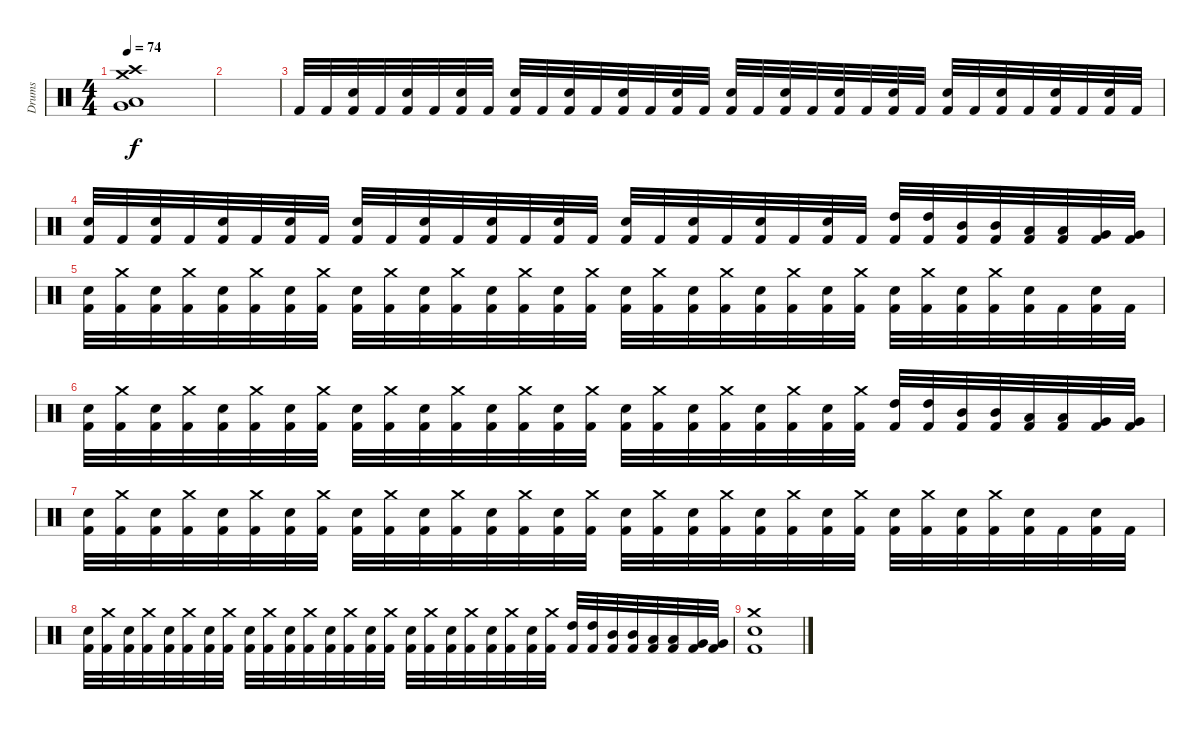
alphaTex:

\track ("Drums" "Drums") {instrument percussion}
\staff {score}
\articulation defaults
\ts (4 4)
\tempo 74
\clef neutral
\ks c
("Crash medium (hit)" "Crash high (hit)" "Low Floor Tom (hit)" "Very Low Tom (hit)").1{dy f} |
|
"Kick (hit) 2".32 "Kick (hit) 2".32 ("Kick (hit) 2" "Snare (hit) 2").32 "Kick (hit) 2".32 ("Kick (hit) 2" "Snare (hit) 2").32 "Kick (hit) 2".32 ("Kick (hit) 2" "Snare (hit) 2").32 "Kick (hit) 2".32 ("Kick (hit) 2" "Snare (hit) 2").32 "Kick (hit) 2".32 ("Kick (hit) 2" "Snare (hit) 2").32 "Kick (hit) 2".32 ("Kick (hit) 2" "Snare (hit) 2").32 "Kick (hit) 2".32 ("Kick (hit) 2" "Snare (hit) 2").32 "Kick (hit) 2".32 ("Kick (hit) 2" "Snare (hit) 2").32 "Kick (hit) 2".32 ("Kick (hit) 2" "Snare (hit) 2").32 "Kick (hit) 2".32 ("Kick (hit) 2" "Snare (hit) 2").32 "Kick (hit) 2".32 ("Kick (hit) 2" "Snare (hit) 2").32 "Kick (hit) 2".32 ("Kick (hit) 2" "Snare (hit) 2").32 "Kick (hit) 2".32 ("Kick (hit) 2" "Snare (hit) 2").32 "Kick (hit) 2".32 ("Kick (hit) 2" "Snare (hit) 2").32 "Kick (hit) 2".32 ("Kick (hit) 2" "Snare (hit) 2").32 "Kick (hit) 2".32 |
("Kick (hit) 2" "Snare (hit) 2").32 "Kick (hit) 2".32 ("Kick (hit) 2" "Snare (hit) 2").32 "Kick (hit) 2".32 ("Kick (hit) 2" "Snare (hit) 2").32 "Kick (hit) 2".32 ("Kick (hit) 2" "Snare (hit) 2").32 "Kick (hit) 2".32 ("Kick (hit) 2" "Snare (hit) 2").32 "Kick (hit) 2".32 ("Kick (hit) 2" "Snare (hit) 2").32 "Kick (hit) 2".32 ("Kick (hit) 2" "Snare (hit) 2").32 "Kick (hit) 2".32 ("Kick (hit) 2" "Snare (hit) 2").32 "Kick (hit) 2".32 ("Kick (hit) 2" "Snare (hit) 2").32 "Kick (hit) 2".32 ("Kick (hit) 2" "Snare (hit) 2").32 "Kick (hit) 2".32 ("Kick (hit) 2" "Snare (hit) 2").32 "Kick (hit) 2".32 ("Kick (hit) 2" "Snare (hit) 2").32 "Kick (hit) 2".32 ("Kick (hit) 2" "High Tom (hit)").32 ("Kick (hit) 2" "High Tom (hit)").32 ("Kick (hit) 2" "Mid Tom (hit)").32 ("Kick (hit) 2" "Mid Tom (hit)").32 ("Kick (hit) 2" "Low Tom (hit)").32 ("Kick (hit) 2" "Low Tom (hit)").32 ("Kick (hit) 2" "Very Low Tom (hit)").32 ("Kick (hit) 2" "Very Low Tom (hit)").32 |
("Kick (hit) 2" "Snare (hit) 2").32 ("Kick (hit) 2" "Crash medium (hit)").32 ("Kick (hit) 2" "Snare (hit) 2").32 ("Kick (hit) 2" "Crash medium (hit)").32 ("Kick (hit) 2" "Snare (hit) 2").32 ("Kick (hit) 2" "Crash medium (hit)").32 ("Kick (hit) 2" "Snare (hit) 2").32 ("Kick (hit) 2" "Crash medium (hit)").32 ("Kick (hit) 2" "Snare (hit) 2").32 ("Kick (hit) 2" "Crash medium (hit)").32 ("Kick (hit) 2" "Snare (hit) 2").32 ("Kick (hit) 2" "Crash medium (hit)").32 ("Kick (hit) 2" "Snare (hit) 2").32 ("Kick (hit) 2" "Crash medium (hit)").32 ("Kick (hit) 2" "Snare (hit) 2").32 ("Kick (hit) 2" "Crash medium (hit)").32 ("Kick (hit) 2" "Snare (hit) 2").32 ("Kick (hit) 2" "Crash medium (hit)").32 ("Kick (hit) 2" "Snare (hit) 2").32 ("Kick (hit) 2" "Crash medium (hit)").32 ("Kick (hit) 2" "Snare (hit) 2").32 ("Kick (hit) 2" "Crash medium (hit)").32 ("Kick (hit) 2" "Snare (hit) 2").32 ("Kick (hit) 2" "Crash medium (hit)").32 ("Kick (hit) 2" "Snare (hit) 2").32 ("Kick (hit) 2" "Crash medium (hit)").32 ("Kick (hit) 2" "Snare (hit) 2").32 ("Kick (hit) 2" "Crash medium (hit)").32 ("Kick (hit) 2" "Snare (hit) 2").32 "Kick (hit) 2".32 ("Kick (hit) 2" "Snare (hit) 2").32 "Kick (hit) 2".32 |
("Kick (hit) 2" "Snare (hit) 2").32 ("Kick (hit) 2" "Crash medium (hit)").32 ("Kick (hit) 2" "Snare (hit) 2").32 ("Kick (hit) 2" "Crash medium (hit)").32 ("Kick (hit) 2" "Snare (hit) 2").32 ("Kick (hit) 2" "Crash medium (hit)").32 ("Kick (hit) 2" "Snare (hit) 2").32 ("Kick (hit) 2" "Crash medium (hit)").32 ("Kick (hit) 2" "Snare (hit) 2").32 ("Kick (hit) 2" "Crash medium (hit)").32 ("Kick (hit) 2" "Snare (hit) 2").32 ("Kick (hit) 2" "Crash medium (hit)").32 ("Kick (hit) 2" "Snare (hit) 2").32 ("Kick (hit) 2" "Crash medium (hit)").32 ("Kick (hit) 2" "Snare (hit) 2").32 ("Kick (hit) 2" "Crash medium (hit)").32 ("Kick (hit) 2" "Snare (hit) 2").32 ("Kick (hit) 2" "Crash medium (hit)").32 ("Kick (hit) 2" "Snare (hit) 2").32 ("Kick (hit) 2" "Crash medium (hit)").32 ("Kick (hit) 2" "Snare (hit) 2").32 ("Kick (hit) 2" "Crash medium (hit)").32 ("Kick (hit) 2" "Snare (hit) 2").32 ("Kick (hit) 2" "Crash medium (hit)").32 ("Kick (hit) 2" "High Tom (hit)").32 ("Kick (hit) 2" "High Tom (hit)").32 ("Kick (hit) 2" "Mid Tom (hit)").32 ("Kick (hit) 2" "Mid Tom (hit)").32 ("Kick (hit) 2" "Low Tom (hit)").32 ("Kick (hit) 2" "Low Tom (hit)").32 ("Kick (hit) 2" "Very Low Tom (hit)").32 ("Kick (hit) 2" "Very Low Tom (hit)").32 |
("Kick (hit) 2" "Snare (hit) 2").32 ("Kick (hit) 2" "Crash medium (hit)").32 ("Kick (hit) 2" "Snare (hit) 2").32 ("Kick (hit) 2" "Crash medium (hit)").32 ("Kick (hit) 2" "Snare (hit) 2").32 ("Kick (hit) 2" "Crash medium (hit)").32 ("Kick (hit) 2" "Snare (hit) 2").32 ("Kick (hit) 2" "Crash medium (hit)").32 ("Kick (hit) 2" "Snare (hit) 2").32 ("Kick (hit) 2" "Crash medium (hit)").32 ("Kick (hit) 2" "Snare (hit) 2").32 ("Kick (hit) 2" "Crash medium (hit)").32 ("Kick (hit) 2" "Snare (hit) 2").32 ("Kick (hit) 2" "Crash medium (hit)").32 ("Kick (hit) 2" "Snare (hit) 2").32 ("Kick (hit) 2" "Crash medium (hit)").32 ("Kick (hit) 2" "Snare (hit) 2").32 ("Kick (hit) 2" "Crash medium (hit)").32 ("Kick (hit) 2" "Snare (hit) 2").32 ("Kick (hit) 2" "Crash medium (hit)").32 ("Kick (hit) 2" "Snare (hit) 2").32 ("Kick (hit) 2" "Crash medium (hit)").32 ("Kick (hit) 2" "Snare (hit) 2").32 ("Kick (hit) 2" "Crash medium (hit)").32 ("Kick (hit) 2" "Snare (hit) 2").32 ("Kick (hit) 2" "Crash medium (hit)").32 ("Kick (hit) 2" "Snare (hit) 2").32 ("Kick (hit) 2" "Crash medium (hit)").32 ("Kick (hit) 2" "Snare (hit) 2").32 "Kick (hit) 2".32 ("Kick (hit) 2" "Snare (hit) 2").32 "Kick (hit) 2".32 |
("Kick (hit) 2" "Snare (hit) 2").32 ("Kick (hit) 2" "Crash medium (hit)").32 ("Kick (hit) 2" "Snare (hit) 2").32 ("Kick (hit) 2" "Crash medium (hit)").32 ("Kick (hit) 2" "Snare (hit) 2").32 ("Kick (hit) 2" "Crash medium (hit)").32 ("Kick (hit) 2" "Snare (hit) 2").32 ("Kick (hit) 2" "Crash medium (hit)").32 ("Kick (hit) 2" "Snare (hit) 2").32 ("Kick (hit) 2" "Crash medium (hit)").32 ("Kick (hit) 2" "Snare (hit) 2").32 ("Kick (hit) 2" "Crash medium (hit)").32 ("Kick (hit) 2" "Snare (hit) 2").32 ("Kick (hit) 2" "Crash medium (hit)").32 ("Kick (hit) 2" "Snare (hit) 2").32 ("Kick (hit) 2" "Crash medium (hit)").32 ("Kick (hit) 2" "Snare (hit) 2").32 ("Kick (hit) 2" "Crash medium (hit)").32 ("Kick (hit) 2" "Snare (hit) 2").32 ("Kick (hit) 2" "Crash medium (hit)").32 ("Kick (hit) 2" "Snare (hit) 2").32 ("Kick (hit) 2" "Crash medium (hit)").32 ("Kick (hit) 2" "Snare (hit) 2").32 ("Kick (hit) 2" "Crash medium (hit)").32 ("Kick (hit) 2" "High Tom (hit)").32 ("Kick (hit) 2" "High Tom (hit)").32 ("Kick (hit) 2" "Mid Tom (hit)").32 ("Kick (hit) 2" "Mid Tom (hit)").32 ("Kick (hit) 2" "Low Tom (hit)").32 ("Kick (hit) 2" "Low Tom (hit)").32 ("Kick (hit) 2" "Very Low Tom (hit)").32 ("Kick (hit) 2" "Very Low Tom (hit)").32 |
("Kick (hit) 2" "Crash medium (hit)" "Snare (hit) 2").1
